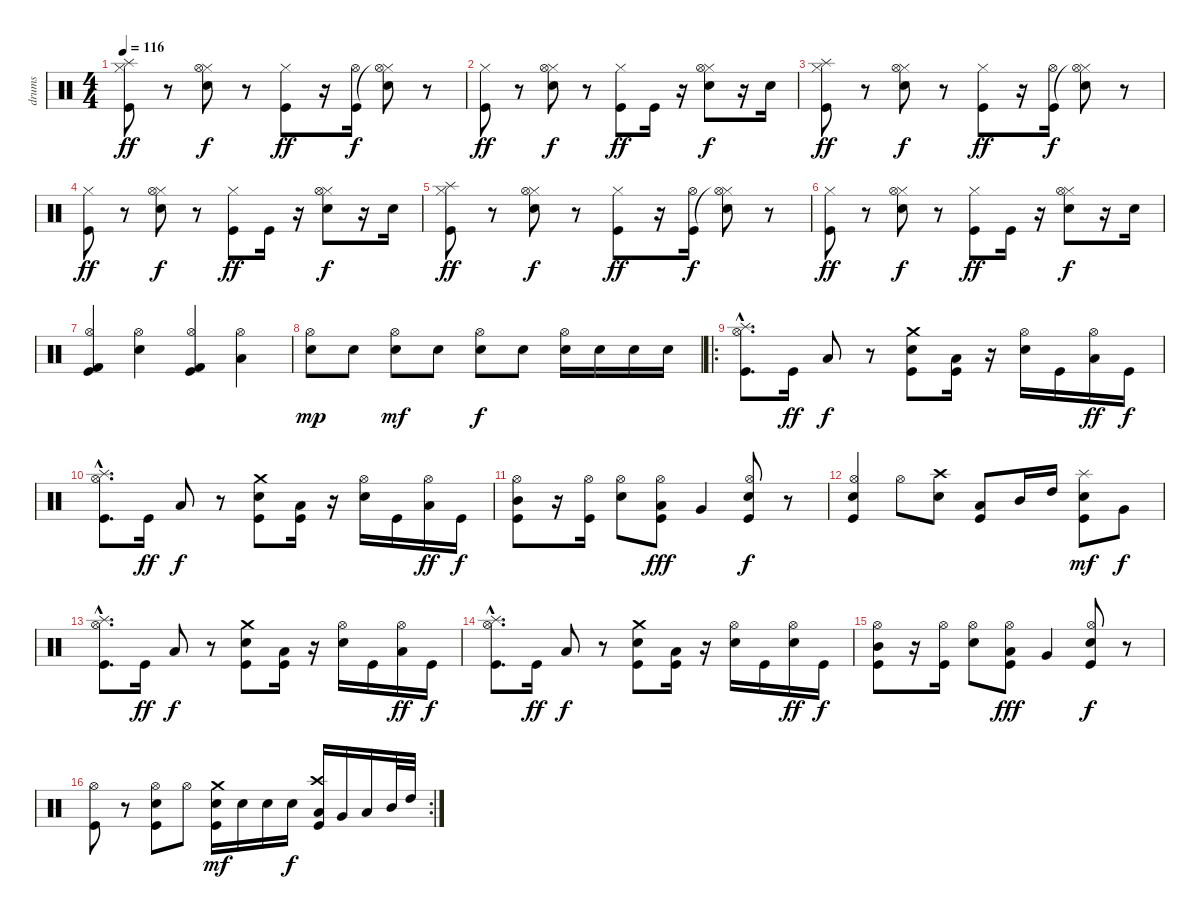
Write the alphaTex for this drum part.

\track ("drums" "drums") {instrument percussion}
\staff {score}
\articulation defaults
\ts (4 4)
\tempo 116
\clef neutral
\ks c
("Hi-Hat (closed)" "Splash (hit)" "Kick (hit)").8{dy ff} r.8 ("Hi-Hat (closed)" "Hi-Hat (open)" "Electric Snare (hit)").8{dy f} r.8 ("Hi-Hat (closed)" "Kick (hit)").8{dy ff} r.16 ("Hi-Hat (open)" "Kick (hit)").16{dy f} ("Hi-Hat (closed)" "Hi-Hat (open)"{t} "Electric Snare (hit)").8 r.8 |
("Hi-Hat (closed)" "Kick (hit)").8{dy ff} r.8 ("Hi-Hat (closed)" "Hi-Hat (open)" "Electric Snare (hit)").8{dy f} r.8 ("Hi-Hat (closed)" "Kick (hit)").8{dy ff} "Kick (hit)".16 r.16 ("Hi-Hat (closed)" "Hi-Hat (open)" "Electric Snare (hit)").8{dy f} r.16 "Electric Snare (hit)".16 |
("Hi-Hat (closed)" "Splash (hit)" "Kick (hit)").8{dy ff} r.8 ("Hi-Hat (closed)" "Hi-Hat (open)" "Electric Snare (hit)").8{dy f} r.8 ("Hi-Hat (closed)" "Kick (hit)").8{dy ff} r.16 ("Hi-Hat (open)" "Kick (hit)").16{dy f} ("Hi-Hat (closed)" "Hi-Hat (open)"{t} "Electric Snare (hit)").8 r.8 |
("Hi-Hat (closed)" "Kick (hit)").8{dy ff} r.8 ("Hi-Hat (closed)" "Hi-Hat (open)" "Electric Snare (hit)").8{dy f} r.8 ("Hi-Hat (closed)" "Kick (hit)").8{dy ff} "Kick (hit)".16 r.16 ("Hi-Hat (closed)" "Hi-Hat (open)" "Electric Snare (hit)").8{dy f} r.16 "Electric Snare (hit)".16 |
("Hi-Hat (closed)" "Splash (hit)" "Kick (hit)").8{dy ff} r.8 ("Hi-Hat (closed)" "Hi-Hat (open)" "Electric Snare (hit)").8{dy f} r.8 ("Hi-Hat (closed)" "Kick (hit)").8{dy ff} r.16 ("Hi-Hat (open)" "Kick (hit)").16{dy f} ("Hi-Hat (closed)" "Hi-Hat (open)"{t} "Electric Snare (hit)").8 r.8 |
("Hi-Hat (closed)" "Kick (hit)").8{dy ff} r.8 ("Hi-Hat (closed)" "Hi-Hat (open)" "Electric Snare (hit)").8{dy f} r.8 ("Hi-Hat (closed)" "Kick (hit)").8{dy ff} "Kick (hit)".16 r.16 ("Hi-Hat (closed)" "Hi-Hat (open)" "Electric Snare (hit)").8{dy f} r.16 "Electric Snare (hit)".16 |
("Hi-Hat (open)" "Kick (hit) 2" "Kick (hit)").4 ("Hi-Hat (open)" "Electric Snare (hit)").4 ("Hi-Hat (open)" "Kick (hit) 2" "Kick (hit)").4 ("Hi-Hat (open)" "Low Tom (hit)").4 |
("Hi-Hat (open)" "Electric Snare (hit)").8{dy mp} "Electric Snare (hit)".8 ("Hi-Hat (open)" "Electric Snare (hit)").8{dy mf} "Electric Snare (hit)".8 ("Hi-Hat (open)" "Electric Snare (hit)").8{dy f} "Electric Snare (hit)".8 ("Hi-Hat (open)" "Electric Snare (hit)").16 "Electric Snare (hit)".16 "Electric Snare (hit)".16 "Electric Snare (hit)".16 |
\ro
("Hi-Hat (open)"{hac} "Splash (hit)"{hac} "Kick (hit)"{hac}).8{d} "Kick (hit)".16{dy ff} "Low Tom (hit)".8{dy f} r.8 ("Crash medium (hit)" "Electric Snare (hit)" "Kick (hit)").8 ("Low Tom (hit)" "Kick (hit)").16 r.16 ("Hi-Hat (open)" "Electric Snare (hit)").16 "Kick (hit)".16 ("Hi-Hat (open)" "Low Tom (hit)").16{dy ff} "Kick (hit)".16{dy f} |
("Hi-Hat (open)"{hac} "Splash (hit)"{hac} "Kick (hit)"{hac}).8{d} "Kick (hit)".16{dy ff} "Low Tom (hit)".8{dy f} r.8 ("Crash medium (hit)" "Electric Snare (hit)" "Kick (hit)").8 ("Low Tom (hit)" "Kick (hit)").16 r.16 ("Hi-Hat (open)" "Electric Snare (hit)").16 "Kick (hit)".16 ("Hi-Hat (open)" "Low Tom (hit)").16{dy ff} "Kick (hit)".16{dy f} |
("Hi-Hat (open)" "Mid Tom (hit)" "Kick (hit)").8 r.16 ("Hi-Hat (open)" "Kick (hit)").16 ("Hi-Hat (open)" "Electric Snare (hit)").8 ("Hi-Hat (open)" "Low Tom (hit)" "Kick (hit)").8{dy fff} "Very Low Tom (hit)".4 ("Hi-Hat (open)" "Electric Snare (hit)" "Kick (hit)").8{dy f} r.8 |
("Electric Snare (hit)" "Hi-Hat (open)" "Kick (hit)").4 "Hi-Hat (open)".8 ("Crash high (hit)" "Electric Snare (hit)").8 ("Low Tom (hit)" "Kick (hit)").8 "Mid Tom (hit)".16 "High Tom (hit)".16 ("Splash (hit)" "Electric Snare (hit)" "Kick (hit)").8{dy mf} "Very Low Tom (hit)".8{dy f} |
("Hi-Hat (open)"{hac} "Splash (hit)"{hac} "Kick (hit)"{hac}).8{d} "Kick (hit)".16{dy ff} "Low Tom (hit)".8{dy f} r.8 ("Crash medium (hit)" "Electric Snare (hit)" "Kick (hit)").8 ("Low Tom (hit)" "Kick (hit)").16 r.16 ("Hi-Hat (open)" "Electric Snare (hit)").16 "Kick (hit)".16 ("Hi-Hat (open)" "Low Tom (hit)").16{dy ff} "Kick (hit)".16{dy f} |
("Hi-Hat (open)"{hac} "Splash (hit)"{hac} "Kick (hit)"{hac}).8{d} "Kick (hit)".16{dy ff} "Low Tom (hit)".8{dy f} r.8 ("Crash medium (hit)" "Electric Snare (hit)" "Kick (hit)").8 ("Low Tom (hit)" "Kick (hit)").16 r.16 ("Hi-Hat (open)" "Electric Snare (hit)").16 "Kick (hit)".16 ("Hi-Hat (open)" "Electric Snare (hit)").16{dy ff} "Kick (hit)".16{dy f} |
("Hi-Hat (open)" "Mid Tom (hit)" "Kick (hit)").8 r.16 ("Hi-Hat (open)" "Kick (hit)").16 ("Hi-Hat (open)" "Electric Snare (hit)").8 ("Hi-Hat (open)" "Low Tom (hit)" "Kick (hit)").8{dy fff} "Very Low Tom (hit)".4 ("Hi-Hat (open)" "Electric Snare (hit)" "Kick (hit)").8{dy f} r.8 |
\rc 2
("Hi-Hat (open)" "Kick (hit)").8 r.8 ("Hi-Hat (open)" "Electric Snare (hit)" "Kick (hit)").8 "Hi-Hat (open)".8 ("Crash medium (hit)" "Electric Snare (hit)" "Kick (hit)").16{dy mf} "Electric Snare (hit)".16 "Electric Snare (hit)".16 "Electric Snare (hit)".16{dy f} ("Crash high (hit)" "Low Floor Tom (hit)" "Kick (hit)").16 "Very Low Tom (hit)".16 "Low Tom (hit)".16 "Mid Tom (hit)".32 "High Tom (hit)".32
